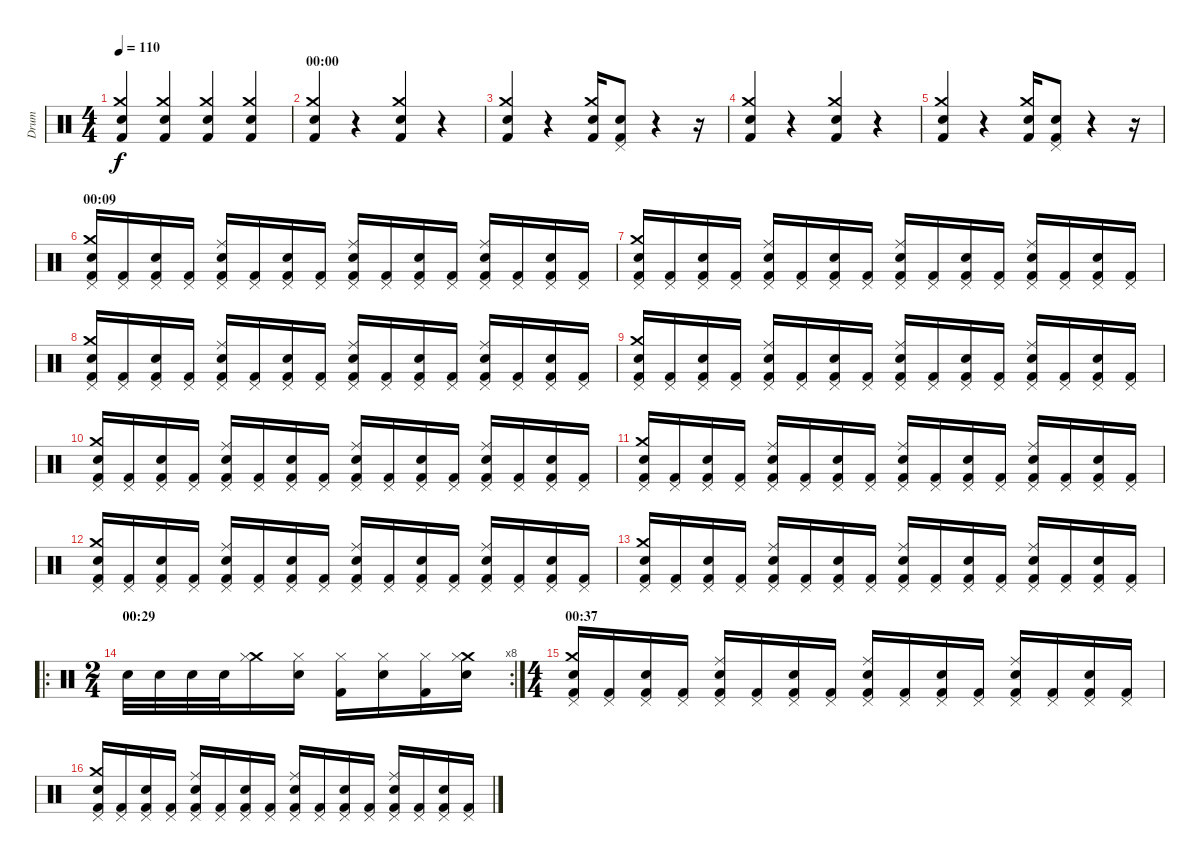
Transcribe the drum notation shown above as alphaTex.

\track ("Drum" "Drum") {instrument percussion}
\staff {score}
\articulation defaults
\ts (4 4)
\tempo 110
\clef neutral
\ks c
("Kick (hit) 2" "Crash medium (hit)" "Snare (hit) 2").4{dy f} ("Kick (hit) 2" "Crash medium (hit)" "Snare (hit) 2").4 ("Kick (hit) 2" "Crash medium (hit)" "Snare (hit) 2").4 ("Kick (hit) 2" "Crash medium (hit)" "Snare (hit) 2").4 |
\section ("" "00:00")
("Kick (hit) 2" "Snare (hit) 2" "Crash medium (hit)").4 r.4 ("Kick (hit) 2" "Snare (hit) 2" "Crash medium (hit)").4 r.4 |
("Kick (hit) 2" "Snare (hit) 2" "Crash medium (hit)").4 r.4 ("Kick (hit) 2" "Snare (hit) 2" "Crash medium (hit)").16 ("Kick (hit) 2" "Snare (hit) 2" "Pedal Hi-Hat (hit)").8 r.4 r.16 |
("Kick (hit) 2" "Snare (hit) 2" "Crash medium (hit)").4 r.4 ("Kick (hit) 2" "Snare (hit) 2" "Crash medium (hit)").4 r.4 |
("Kick (hit) 2" "Snare (hit) 2" "Crash medium (hit)").4 r.4 ("Kick (hit) 2" "Snare (hit) 2" "Crash medium (hit)").16 ("Kick (hit) 2" "Snare (hit) 2" "Pedal Hi-Hat (hit)").8 r.4 r.16 |
\section ("" "00:09")
("Crash medium (hit)" "Pedal Hi-Hat (hit)" "Snare (hit) 2" "Kick (hit) 2").16 ("Pedal Hi-Hat (hit)" "Kick (hit) 2").16 ("Pedal Hi-Hat (hit)" "Snare (hit) 2" "Kick (hit) 2").16 ("Pedal Hi-Hat (hit)" "Kick (hit) 2").16 ("Ride (middle)" "Pedal Hi-Hat (hit)" "Snare (hit) 2" "Kick (hit) 2").16 ("Pedal Hi-Hat (hit)" "Kick (hit) 2").16 ("Pedal Hi-Hat (hit)" "Snare (hit) 2" "Kick (hit) 2").16 ("Pedal Hi-Hat (hit)" "Kick (hit) 2").16 ("Ride (middle)" "Pedal Hi-Hat (hit)" "Snare (hit) 2" "Kick (hit) 2").16 ("Pedal Hi-Hat (hit)" "Kick (hit) 2").16 ("Pedal Hi-Hat (hit)" "Snare (hit) 2" "Kick (hit) 2").16 ("Pedal Hi-Hat (hit)" "Kick (hit) 2").16 ("Ride (middle)" "Pedal Hi-Hat (hit)" "Snare (hit) 2" "Kick (hit) 2").16 ("Pedal Hi-Hat (hit)" "Kick (hit) 2").16 ("Pedal Hi-Hat (hit)" "Snare (hit) 2" "Kick (hit) 2").16 ("Pedal Hi-Hat (hit)" "Kick (hit) 2").16 |
("Crash medium (hit)" "Pedal Hi-Hat (hit)" "Snare (hit) 2" "Kick (hit) 2").16 ("Pedal Hi-Hat (hit)" "Kick (hit) 2").16 ("Pedal Hi-Hat (hit)" "Snare (hit) 2" "Kick (hit) 2").16 ("Pedal Hi-Hat (hit)" "Kick (hit) 2").16 ("Ride (middle)" "Pedal Hi-Hat (hit)" "Snare (hit) 2" "Kick (hit) 2").16 ("Pedal Hi-Hat (hit)" "Kick (hit) 2").16 ("Pedal Hi-Hat (hit)" "Snare (hit) 2" "Kick (hit) 2").16 ("Pedal Hi-Hat (hit)" "Kick (hit) 2").16 ("Ride (middle)" "Pedal Hi-Hat (hit)" "Snare (hit) 2" "Kick (hit) 2").16 ("Pedal Hi-Hat (hit)" "Kick (hit) 2").16 ("Pedal Hi-Hat (hit)" "Snare (hit) 2" "Kick (hit) 2").16 ("Pedal Hi-Hat (hit)" "Kick (hit) 2").16 ("Ride (middle)" "Pedal Hi-Hat (hit)" "Snare (hit) 2" "Kick (hit) 2").16 ("Pedal Hi-Hat (hit)" "Kick (hit) 2").16 ("Pedal Hi-Hat (hit)" "Snare (hit) 2" "Kick (hit) 2").16 ("Pedal Hi-Hat (hit)" "Kick (hit) 2").16 |
("Crash medium (hit)" "Pedal Hi-Hat (hit)" "Snare (hit) 2" "Kick (hit) 2").16 ("Pedal Hi-Hat (hit)" "Kick (hit) 2").16 ("Pedal Hi-Hat (hit)" "Snare (hit) 2" "Kick (hit) 2").16 ("Pedal Hi-Hat (hit)" "Kick (hit) 2").16 ("Ride (middle)" "Pedal Hi-Hat (hit)" "Snare (hit) 2" "Kick (hit) 2").16 ("Pedal Hi-Hat (hit)" "Kick (hit) 2").16 ("Pedal Hi-Hat (hit)" "Snare (hit) 2" "Kick (hit) 2").16 ("Pedal Hi-Hat (hit)" "Kick (hit) 2").16 ("Ride (middle)" "Pedal Hi-Hat (hit)" "Snare (hit) 2" "Kick (hit) 2").16 ("Pedal Hi-Hat (hit)" "Kick (hit) 2").16 ("Pedal Hi-Hat (hit)" "Snare (hit) 2" "Kick (hit) 2").16 ("Pedal Hi-Hat (hit)" "Kick (hit) 2").16 ("Ride (middle)" "Pedal Hi-Hat (hit)" "Snare (hit) 2" "Kick (hit) 2").16 ("Pedal Hi-Hat (hit)" "Kick (hit) 2").16 ("Pedal Hi-Hat (hit)" "Snare (hit) 2" "Kick (hit) 2").16 ("Pedal Hi-Hat (hit)" "Kick (hit) 2").16 |
("Crash medium (hit)" "Pedal Hi-Hat (hit)" "Snare (hit) 2" "Kick (hit) 2").16 ("Pedal Hi-Hat (hit)" "Kick (hit) 2").16 ("Pedal Hi-Hat (hit)" "Snare (hit) 2" "Kick (hit) 2").16 ("Pedal Hi-Hat (hit)" "Kick (hit) 2").16 ("Ride (middle)" "Pedal Hi-Hat (hit)" "Snare (hit) 2" "Kick (hit) 2").16 ("Pedal Hi-Hat (hit)" "Kick (hit) 2").16 ("Pedal Hi-Hat (hit)" "Snare (hit) 2" "Kick (hit) 2").16 ("Pedal Hi-Hat (hit)" "Kick (hit) 2").16 ("Ride (middle)" "Pedal Hi-Hat (hit)" "Snare (hit) 2" "Kick (hit) 2").16 ("Pedal Hi-Hat (hit)" "Kick (hit) 2").16 ("Pedal Hi-Hat (hit)" "Snare (hit) 2" "Kick (hit) 2").16 ("Pedal Hi-Hat (hit)" "Kick (hit) 2").16 ("Ride (middle)" "Pedal Hi-Hat (hit)" "Snare (hit) 2" "Kick (hit) 2").16 ("Pedal Hi-Hat (hit)" "Kick (hit) 2").16 ("Pedal Hi-Hat (hit)" "Snare (hit) 2" "Kick (hit) 2").16 ("Pedal Hi-Hat (hit)" "Kick (hit) 2").16 |
("Crash medium (hit)" "Pedal Hi-Hat (hit)" "Snare (hit) 2" "Kick (hit) 2").16 ("Pedal Hi-Hat (hit)" "Kick (hit) 2").16 ("Pedal Hi-Hat (hit)" "Snare (hit) 2" "Kick (hit) 2").16 ("Pedal Hi-Hat (hit)" "Kick (hit) 2").16 ("Ride (middle)" "Pedal Hi-Hat (hit)" "Snare (hit) 2" "Kick (hit) 2").16 ("Pedal Hi-Hat (hit)" "Kick (hit) 2").16 ("Pedal Hi-Hat (hit)" "Snare (hit) 2" "Kick (hit) 2").16 ("Pedal Hi-Hat (hit)" "Kick (hit) 2").16 ("Ride (middle)" "Pedal Hi-Hat (hit)" "Snare (hit) 2" "Kick (hit) 2").16 ("Pedal Hi-Hat (hit)" "Kick (hit) 2").16 ("Pedal Hi-Hat (hit)" "Snare (hit) 2" "Kick (hit) 2").16 ("Pedal Hi-Hat (hit)" "Kick (hit) 2").16 ("Ride (middle)" "Pedal Hi-Hat (hit)" "Snare (hit) 2" "Kick (hit) 2").16 ("Pedal Hi-Hat (hit)" "Kick (hit) 2").16 ("Pedal Hi-Hat (hit)" "Snare (hit) 2" "Kick (hit) 2").16 ("Pedal Hi-Hat (hit)" "Kick (hit) 2").16 |
("Crash medium (hit)" "Pedal Hi-Hat (hit)" "Snare (hit) 2" "Kick (hit) 2").16 ("Pedal Hi-Hat (hit)" "Kick (hit) 2").16 ("Pedal Hi-Hat (hit)" "Snare (hit) 2" "Kick (hit) 2").16 ("Pedal Hi-Hat (hit)" "Kick (hit) 2").16 ("Ride (middle)" "Pedal Hi-Hat (hit)" "Snare (hit) 2" "Kick (hit) 2").16 ("Pedal Hi-Hat (hit)" "Kick (hit) 2").16 ("Pedal Hi-Hat (hit)" "Snare (hit) 2" "Kick (hit) 2").16 ("Pedal Hi-Hat (hit)" "Kick (hit) 2").16 ("Ride (middle)" "Pedal Hi-Hat (hit)" "Snare (hit) 2" "Kick (hit) 2").16 ("Pedal Hi-Hat (hit)" "Kick (hit) 2").16 ("Pedal Hi-Hat (hit)" "Snare (hit) 2" "Kick (hit) 2").16 ("Pedal Hi-Hat (hit)" "Kick (hit) 2").16 ("Ride (middle)" "Pedal Hi-Hat (hit)" "Snare (hit) 2" "Kick (hit) 2").16 ("Pedal Hi-Hat (hit)" "Kick (hit) 2").16 ("Pedal Hi-Hat (hit)" "Snare (hit) 2" "Kick (hit) 2").16 ("Pedal Hi-Hat (hit)" "Kick (hit) 2").16 |
("Crash medium (hit)" "Pedal Hi-Hat (hit)" "Snare (hit) 2" "Kick (hit) 2").16 ("Pedal Hi-Hat (hit)" "Kick (hit) 2").16 ("Pedal Hi-Hat (hit)" "Snare (hit) 2" "Kick (hit) 2").16 ("Pedal Hi-Hat (hit)" "Kick (hit) 2").16 ("Ride (middle)" "Pedal Hi-Hat (hit)" "Snare (hit) 2" "Kick (hit) 2").16 ("Pedal Hi-Hat (hit)" "Kick (hit) 2").16 ("Pedal Hi-Hat (hit)" "Snare (hit) 2" "Kick (hit) 2").16 ("Pedal Hi-Hat (hit)" "Kick (hit) 2").16 ("Ride (middle)" "Pedal Hi-Hat (hit)" "Snare (hit) 2" "Kick (hit) 2").16 ("Pedal Hi-Hat (hit)" "Kick (hit) 2").16 ("Pedal Hi-Hat (hit)" "Snare (hit) 2" "Kick (hit) 2").16 ("Pedal Hi-Hat (hit)" "Kick (hit) 2").16 ("Ride (middle)" "Pedal Hi-Hat (hit)" "Snare (hit) 2" "Kick (hit) 2").16 ("Pedal Hi-Hat (hit)" "Kick (hit) 2").16 ("Pedal Hi-Hat (hit)" "Snare (hit) 2" "Kick (hit) 2").16 ("Pedal Hi-Hat (hit)" "Kick (hit) 2").16 |
("Crash medium (hit)" "Pedal Hi-Hat (hit)" "Snare (hit) 2" "Kick (hit) 2").16 ("Pedal Hi-Hat (hit)" "Kick (hit) 2").16 ("Pedal Hi-Hat (hit)" "Snare (hit) 2" "Kick (hit) 2").16 ("Pedal Hi-Hat (hit)" "Kick (hit) 2").16 ("Ride (middle)" "Pedal Hi-Hat (hit)" "Snare (hit) 2" "Kick (hit) 2").16 ("Pedal Hi-Hat (hit)" "Kick (hit) 2").16 ("Pedal Hi-Hat (hit)" "Snare (hit) 2" "Kick (hit) 2").16 ("Pedal Hi-Hat (hit)" "Kick (hit) 2").16 ("Ride (middle)" "Pedal Hi-Hat (hit)" "Snare (hit) 2" "Kick (hit) 2").16 ("Pedal Hi-Hat (hit)" "Kick (hit) 2").16 ("Pedal Hi-Hat (hit)" "Snare (hit) 2" "Kick (hit) 2").16 ("Pedal Hi-Hat (hit)" "Kick (hit) 2").16 ("Ride (middle)" "Pedal Hi-Hat (hit)" "Snare (hit) 2" "Kick (hit) 2").16 ("Pedal Hi-Hat (hit)" "Kick (hit) 2").16 ("Pedal Hi-Hat (hit)" "Snare (hit) 2" "Kick (hit) 2").16 ("Pedal Hi-Hat (hit)" "Kick (hit) 2").16 |
\ro
\rc 8
\ts (2 4)
\section ("" "00:29")
"Snare (hit) 2".32 "Snare (hit) 2".32 "Snare (hit) 2".32 "Snare (hit) 2".32 ("Crash medium (hit)" "Hi-Hat (closed)").16 ("Snare (hit) 2" "Hi-Hat (closed)").16 ("Kick (hit) 2" "Hi-Hat (closed)").16 ("Snare (hit) 2" "Hi-Hat (closed)").16 ("Kick (hit) 2" "Hi-Hat (closed)").16 ("Crash medium (hit)" "Snare (hit) 2" "Hi-Hat (closed)").16 |
\ts (4 4)
\section ("" "00:37")
("Crash medium (hit)" "Pedal Hi-Hat (hit)" "Snare (hit) 2" "Kick (hit) 2").16 ("Pedal Hi-Hat (hit)" "Kick (hit) 2").16 ("Pedal Hi-Hat (hit)" "Snare (hit) 2" "Kick (hit) 2").16 ("Pedal Hi-Hat (hit)" "Kick (hit) 2").16 ("Ride (middle)" "Pedal Hi-Hat (hit)" "Snare (hit) 2" "Kick (hit) 2").16 ("Pedal Hi-Hat (hit)" "Kick (hit) 2").16 ("Pedal Hi-Hat (hit)" "Snare (hit) 2" "Kick (hit) 2").16 ("Pedal Hi-Hat (hit)" "Kick (hit) 2").16 ("Ride (middle)" "Pedal Hi-Hat (hit)" "Snare (hit) 2" "Kick (hit) 2").16 ("Pedal Hi-Hat (hit)" "Kick (hit) 2").16 ("Pedal Hi-Hat (hit)" "Snare (hit) 2" "Kick (hit) 2").16 ("Pedal Hi-Hat (hit)" "Kick (hit) 2").16 ("Ride (middle)" "Pedal Hi-Hat (hit)" "Snare (hit) 2" "Kick (hit) 2").16 ("Pedal Hi-Hat (hit)" "Kick (hit) 2").16 ("Pedal Hi-Hat (hit)" "Snare (hit) 2" "Kick (hit) 2").16 ("Pedal Hi-Hat (hit)" "Kick (hit) 2").16 |
("Crash medium (hit)" "Pedal Hi-Hat (hit)" "Snare (hit) 2" "Kick (hit) 2").16 ("Pedal Hi-Hat (hit)" "Kick (hit) 2").16 ("Pedal Hi-Hat (hit)" "Snare (hit) 2" "Kick (hit) 2").16 ("Pedal Hi-Hat (hit)" "Kick (hit) 2").16 ("Ride (middle)" "Pedal Hi-Hat (hit)" "Snare (hit) 2" "Kick (hit) 2").16 ("Pedal Hi-Hat (hit)" "Kick (hit) 2").16 ("Pedal Hi-Hat (hit)" "Snare (hit) 2" "Kick (hit) 2").16 ("Pedal Hi-Hat (hit)" "Kick (hit) 2").16 ("Ride (middle)" "Pedal Hi-Hat (hit)" "Snare (hit) 2" "Kick (hit) 2").16 ("Pedal Hi-Hat (hit)" "Kick (hit) 2").16 ("Pedal Hi-Hat (hit)" "Snare (hit) 2" "Kick (hit) 2").16 ("Pedal Hi-Hat (hit)" "Kick (hit) 2").16 ("Ride (middle)" "Pedal Hi-Hat (hit)" "Snare (hit) 2" "Kick (hit) 2").16 ("Pedal Hi-Hat (hit)" "Kick (hit) 2").16 ("Pedal Hi-Hat (hit)" "Snare (hit) 2" "Kick (hit) 2").16 ("Pedal Hi-Hat (hit)" "Kick (hit) 2").16
